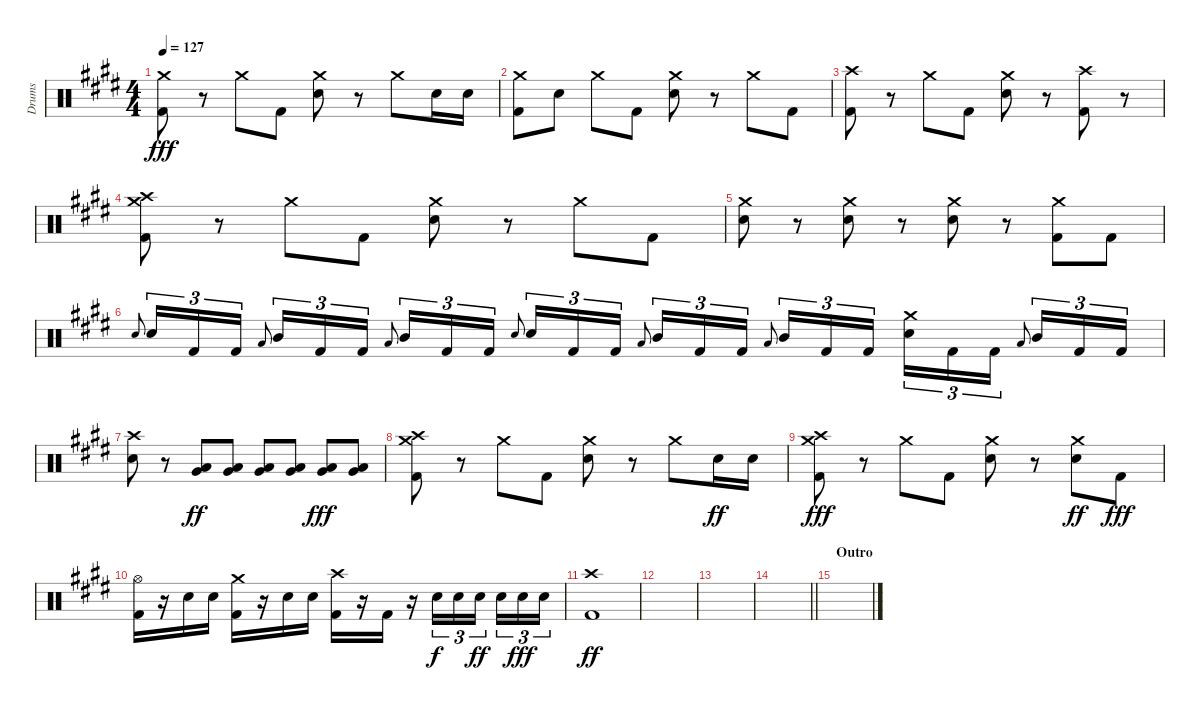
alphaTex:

\track ("Drums" "Drums") {instrument percussion}
\staff {score}
\articulation defaults
\ts (4 4)
\tempo 127
\clef neutral
\ks c#minor
("Crash medium (hit)" "Kick (hit) 2").8{dy fff} r.8 "Crash medium (hit)".8 "Kick (hit) 2".8 ("Crash medium (hit)" "Electric Snare (hit)").8 r.8 "Crash medium (hit)".8 "Electric Snare (hit)".16 "Electric Snare (hit)".16 |
("Crash medium (hit)" "Kick (hit) 2").8 "Electric Snare (hit)".8 "Crash medium (hit)".8 "Kick (hit) 2".8 ("Crash medium (hit)" "Electric Snare (hit)").8 r.8 "Crash medium (hit)".8 "Kick (hit) 2".8 |
("Crash high (hit)" "Kick (hit) 2").8 r.8 "Crash medium (hit)".8 "Kick (hit) 2".8 ("Crash medium (hit)" "Electric Snare (hit)").8 r.8 ("Crash high (hit)" "Kick (hit) 2").8 r.8 |
("Crash medium (hit)" "Crash high (hit)" "Kick (hit) 2").8 r.8 "Crash medium (hit)".8 "Kick (hit) 2".8 ("Crash medium (hit)" "Electric Snare (hit)").8 r.8 "Crash medium (hit)".8 "Kick (hit) 2".8 |
("Crash medium (hit)" "Electric Snare (hit)").8 r.8 ("Crash medium (hit)" "Electric Snare (hit)").8 r.8 ("Crash medium (hit)" "Electric Snare (hit)").8 r.8 ("Crash medium (hit)" "Kick (hit) 2").8 "Kick (hit) 2".8 |
"Electric Snare (hit)".8{gr onbeat} "Electric Snare (hit)".16{tu (3 2)} "Kick (hit) 2".16{tu (3 2)} "Kick (hit) 2".16{tu (3 2)} "Low Tom (hit)".8{gr onbeat beam splitsecondary} "Mid Tom (hit)".16{tu (3 2)} "Kick (hit) 2".16{tu (3 2)} "Kick (hit) 2".16{tu (3 2)} "Low Tom (hit)".8{gr onbeat} "Mid Tom (hit)".16{tu (3 2)} "Kick (hit) 2".16{tu (3 2)} "Kick (hit) 2".16{tu (3 2)} "Electric Snare (hit)".8{gr onbeat beam splitsecondary} "Electric Snare (hit)".16{tu (3 2)} "Kick (hit) 2".16{tu (3 2)} "Kick (hit) 2".16{tu (3 2)} "Low Tom (hit)".8{gr onbeat} "Mid Tom (hit)".16{tu (3 2)} "Kick (hit) 2".16{tu (3 2)} "Kick (hit) 2".16{tu (3 2)} "Low Tom (hit)".8{gr onbeat beam splitsecondary} "Mid Tom (hit)".16{tu (3 2)} "Kick (hit) 2".16{tu (3 2)} "Kick (hit) 2".16{tu (3 2)} ("Crash medium (hit)" "Electric Snare (hit)").16{tu (3 2)} "Kick (hit) 2".16{tu (3 2)} "Kick (hit) 2".16{tu (3 2)} "Low Tom (hit)".8{gr onbeat beam splitsecondary} "Mid Tom (hit)".16{tu (3 2)} "Kick (hit) 2".16{tu (3 2)} "Kick (hit) 2".16{tu (3 2)} |
("Crash high (hit)" "Electric Snare (hit)").8 r.8 ("Very Low Tom (hit)" "Low Floor Tom (hit)").8{dy ff} ("Very Low Tom (hit)" "Low Floor Tom (hit)").8 ("Very Low Tom (hit)" "Low Floor Tom (hit)").8 ("Very Low Tom (hit)" "Low Floor Tom (hit)").8 ("Very Low Tom (hit)" "Low Floor Tom (hit)").8{dy fff} ("Very Low Tom (hit)" "Low Floor Tom (hit)").8 |
("Crash medium (hit)" "Crash high (hit)" "Kick (hit) 2").8 r.8 "Crash medium (hit)".8 "Kick (hit) 2".8 ("Crash medium (hit)" "Electric Snare (hit)").8 r.8 "Crash medium (hit)".8 "Electric Snare (hit)".16{dy ff} "Electric Snare (hit)".16 |
("Crash medium (hit)" "Crash high (hit)" "Kick (hit) 2").8{dy fff} r.8 "Crash medium (hit)".8 "Kick (hit) 2".8 ("Crash medium (hit)" "Electric Snare (hit)").8 r.8 ("Crash medium (hit)" "Electric Snare (hit)").8{dy ff} "Kick (hit) 2".8{dy fff} |
("Hi-Hat (open)" "Kick (hit) 2").16 r.16 "Electric Snare (hit)".16 "Electric Snare (hit)".16 ("Crash medium (hit)" "Kick (hit) 2").16 r.16 "Electric Snare (hit)".16 "Electric Snare (hit)".16 ("Crash high (hit)" "Kick (hit) 2").16 r.16 "Kick (hit) 2".16 r.16 "Electric Snare (hit)".16{tu (3 2) dy f} "Electric Snare (hit)".16{tu (3 2)} "Electric Snare (hit)".16{tu (3 2) dy ff beam splitsecondary} "Electric Snare (hit)".16{tu (3 2)} "Electric Snare (hit)".16{tu (3 2) dy fff} "Electric Snare (hit)".16{tu (3 2)} |
("Crash high (hit)" "Kick (hit) 2").1{dy ff} |
|
|
\barLineRight lightlight
|
\section ("" "Outro")
